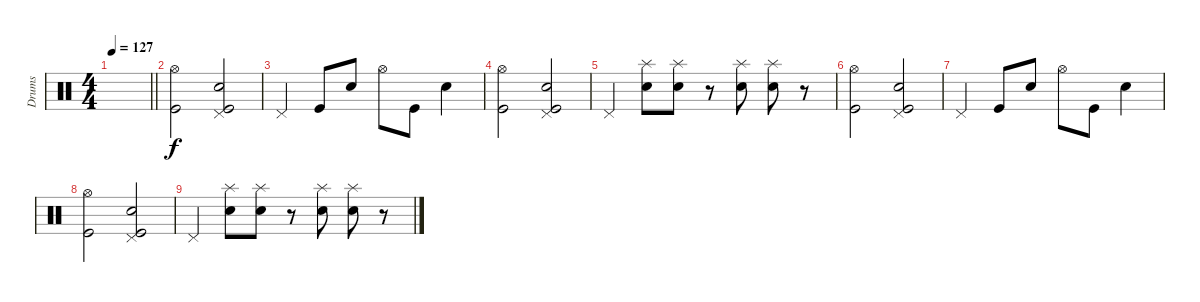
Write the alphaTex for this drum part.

\track ("Drums" "Drums") {instrument percussion}
\staff
\articulation defaults
\ts (4 4)
\tempo 127
\clef neutral
\barLineRight lightlight
\ks c
|
("Hi-Hat (open)" "Kick (hit)").2 ("Pedal Hi-Hat (hit)" "Electric Snare (hit)" "Kick (hit)").2 |
"Pedal Hi-Hat (hit)".4 "Kick (hit)".8 "Electric Snare (hit)".8 "Hi-Hat (open)".8 "Kick (hit)".8 "Electric Snare (hit)".4 |
("Hi-Hat (open)" "Kick (hit)").2 ("Pedal Hi-Hat (hit)" "Electric Snare (hit)" "Kick (hit)").2 |
"Pedal Hi-Hat (hit)".4 ("Splash (hit)" "Electric Snare (hit)").8 ("Splash (hit)" "Electric Snare (hit)").8 r.8 ("Splash (hit)" "Electric Snare (hit)").8 ("Splash (hit)" "Electric Snare (hit)").8 r.8 |
("Hi-Hat (open)" "Kick (hit)").2 ("Pedal Hi-Hat (hit)" "Electric Snare (hit)" "Kick (hit)").2 |
"Pedal Hi-Hat (hit)".4 "Kick (hit)".8 "Electric Snare (hit)".8 "Hi-Hat (open)".8 "Kick (hit)".8 "Electric Snare (hit)".4 |
("Hi-Hat (open)" "Kick (hit)").2 ("Pedal Hi-Hat (hit)" "Electric Snare (hit)" "Kick (hit)").2 |
"Pedal Hi-Hat (hit)".4 ("Splash (hit)" "Electric Snare (hit)").8 ("Splash (hit)" "Electric Snare (hit)").8 r.8 ("Splash (hit)" "Electric Snare (hit)").8 ("Splash (hit)" "Electric Snare (hit)").8 r.8
